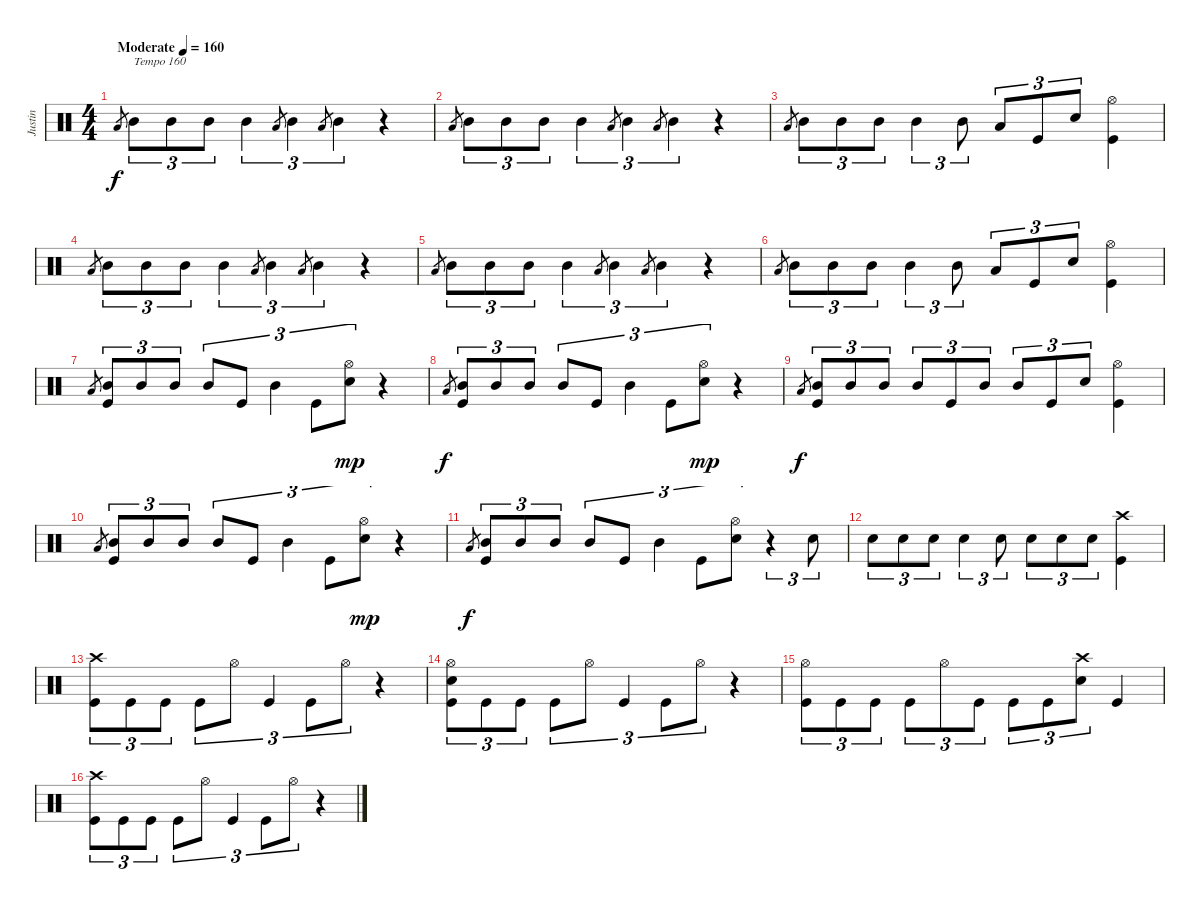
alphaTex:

\track ("Justin" "Justin") {instrument percussion}
\staff {score}
\articulation defaults
\ts (4 4)
\tempo (160 "Moderate")
\clef neutral
\ks c "Low Tom (hit)".8{gr dy f} "Mid Tom (hit)".8{tu (3 2) txt "Tempo 160"} "Mid Tom (hit)".8{tu (3 2)} "Mid Tom (hit)".8{tu (3 2)} "Mid Tom (hit)".4{tu (3 2)} "Low Tom (hit)".8{gr} "Mid Tom (hit)".4{tu (3 2)} "Low Tom (hit)".8{gr} "Mid Tom (hit)".4{tu (3 2)}
r.4 |
"Low Tom (hit)".8{gr} "Mid Tom (hit)".8{tu (3 2)} "Mid Tom (hit)".8{tu (3 2)} "Mid Tom (hit)".8{tu (3 2)} "Mid Tom (hit)".4{tu (3 2)} "Low Tom (hit)".8{gr} "Mid Tom (hit)".4{tu (3 2)} "Low Tom (hit)".8{gr} "Mid Tom (hit)".4{tu (3 2)} r.4 |
"Low Tom (hit)".8{gr} "Mid Tom (hit)".8{tu (3 2)} "Mid Tom (hit)".8{tu (3 2)} "Mid Tom (hit)".8{tu (3 2)} "Mid Tom (hit)".4{tu (3 2)} "Mid Tom (hit)".8{tu (3 2)} "Low Tom (hit)".8{tu (3 2)} "Kick (hit)".8{tu (3 2)} "Electric Snare (hit)".8{tu (3 2)} ("Hi-Hat (open)" "Kick (hit)").4 |
"Low Tom (hit)".8{gr} "Mid Tom (hit)".8{tu (3 2)} "Mid Tom (hit)".8{tu (3 2)} "Mid Tom (hit)".8{tu (3 2)} "Mid Tom (hit)".4{tu (3 2)} "Low Tom (hit)".8{gr} "Mid Tom (hit)".4{tu (3 2)} "Low Tom (hit)".8{gr} "Mid Tom (hit)".4{tu (3 2)} r.4 |
"Low Tom (hit)".8{gr} "Mid Tom (hit)".8{tu (3 2)} "Mid Tom (hit)".8{tu (3 2)} "Mid Tom (hit)".8{tu (3 2)} "Mid Tom (hit)".4{tu (3 2)} "Low Tom (hit)".8{gr} "Mid Tom (hit)".4{tu (3 2)} "Low Tom (hit)".8{gr} "Mid Tom (hit)".4{tu (3 2)} r.4 |
"Low Tom (hit)".8{gr} "Mid Tom (hit)".8{tu (3 2)} "Mid Tom (hit)".8{tu (3 2)} "Mid Tom (hit)".8{tu (3 2)} "Mid Tom (hit)".4{tu (3 2)} "Mid Tom (hit)".8{tu (3 2)} "Low Tom (hit)".8{tu (3 2)} "Kick (hit)".8{tu (3 2)} "Electric Snare (hit)".8{tu (3 2)} ("Hi-Hat (open)" "Kick (hit)").4 |
"Low Tom (hit)".8{gr} ("Kick (hit)" "Mid Tom (hit)").8{tu (3 2)} "Mid Tom (hit)".8{tu (3 2)} "Mid Tom (hit)".8{tu (3 2)} "Mid Tom (hit)".8{tu (3 2)} "Kick (hit)".8{tu (3 2)} "Mid Tom (hit)".4{tu (3 2)} "Kick (hit)".8{tu (3 2)} ("Hi-Hat (open)" "Electric Snare (hit)").8{tu (3 2) dy mp} r.4 |
"Low Tom (hit)".8{gr dy f} ("Kick (hit)" "Mid Tom (hit)").8{tu (3 2)} "Mid Tom (hit)".8{tu (3 2)} "Mid Tom (hit)".8{tu (3 2)} "Mid Tom (hit)".8{tu (3 2)} "Kick (hit)".8{tu (3 2)} "Mid Tom (hit)".4{tu (3 2)} "Kick (hit)".8{tu (3 2)} ("Hi-Hat (open)" "Electric Snare (hit)").8{tu (3 2) dy mp} r.4 |
"Low Tom (hit)".8{gr dy f} ("Kick (hit)" "Mid Tom (hit)").8{tu (3 2)} "Mid Tom (hit)".8{tu (3 2)} "Mid Tom (hit)".8{tu (3 2)} "Mid Tom (hit)".8{tu (3 2)} "Kick (hit)".8{tu (3 2)} "Mid Tom (hit)".8{tu (3 2)} "Mid Tom (hit)".8{tu (3 2)} "Kick (hit)".8{tu (3 2)} "Electric Snare (hit)".8{tu (3 2)} ("Hi-Hat (open)" "Kick (hit)").4 |
"Low Tom (hit)".8{gr} ("Kick (hit)" "Mid Tom (hit)").8{tu (3 2)} "Mid Tom (hit)".8{tu (3 2)} "Mid Tom (hit)".8{tu (3 2)} "Mid Tom (hit)".8{tu (3 2)} "Kick (hit)".8{tu (3 2)} "Mid Tom (hit)".4{tu (3 2)} "Kick (hit)".8{tu (3 2)} ("Hi-Hat (open)" "Electric Snare (hit)").8{tu (3 2) dy mp} r.4 |
"Low Tom (hit)".8{gr dy f} ("Kick (hit)" "Mid Tom (hit)").8{tu (3 2)} "Mid Tom (hit)".8{tu (3 2)} "Mid Tom (hit)".8{tu (3 2)} "Mid Tom (hit)".8{tu (3 2)} "Kick (hit)".8{tu (3 2)} "Mid Tom (hit)".4{tu (3 2)} "Kick (hit)".8{tu (3 2)} ("Hi-Hat (open)" "Electric Snare (hit)").8{tu (3 2)} r.4{tu (3 2)} "Electric Snare (hit)".8{tu (3 2)} |
"Electric Snare (hit)".8{tu (3 2)} "Electric Snare (hit)".8{tu (3 2)} "Electric Snare (hit)".8{tu (3 2)} "Electric Snare (hit)".4{tu (3 2)} "Electric Snare (hit)".8{tu (3 2)} "Electric Snare (hit)".8{tu (3 2)} "Electric Snare (hit)".8{tu (3 2)} "Electric Snare (hit)".8{tu (3 2)} ("Crash high (hit)" "Kick (hit)").4 |
("Crash high (hit)" "Kick (hit)").8{tu (3 2)} "Kick (hit)".8{tu (3 2)} "Kick (hit)".8{tu (3 2)} "Kick (hit)".8{tu (3 2)} "Hi-Hat (open)".8{tu (3 2)} "Kick (hit)".4{tu (3 2)} "Kick (hit)".8{tu (3 2)} "Hi-Hat (open)".8{tu (3 2)} r.4 |
("Electric Snare (hit)" "Hi-Hat (open)" "Kick (hit)").8{tu (3 2)} "Kick (hit)".8{tu (3 2)} "Kick (hit)".8{tu (3 2)} "Kick (hit)".8{tu (3 2)} "Hi-Hat (open)".8{tu (3 2)} "Kick (hit)".4{tu (3 2)} "Kick (hit)".8{tu (3 2)} "Hi-Hat (open)".8{tu (3 2)} r.4 |
("Hi-Hat (open)" "Kick (hit)").8{tu (3 2)} "Kick (hit)".8{tu (3 2)} "Kick (hit)".8{tu (3 2)} "Kick (hit)".8{tu (3 2)} "Hi-Hat (open)".8{tu (3 2)} "Kick (hit)".8{tu (3 2)} "Kick (hit)".8{tu (3 2)} "Kick (hit)".8{tu (3 2)} ("Electric Snare (hit)" "Crash high (hit)").8{tu (3 2)} "Kick (hit)".4 |
("Crash high (hit)" "Kick (hit)").8{tu (3 2)} "Kick (hit)".8{tu (3 2)} "Kick (hit)".8{tu (3 2)} "Kick (hit)".8{tu (3 2)} "Hi-Hat (open)".8{tu (3 2)} "Kick (hit)".4{tu (3 2)} "Kick (hit)".8{tu (3 2)} "Hi-Hat (open)".8{tu (3 2)} r.4
